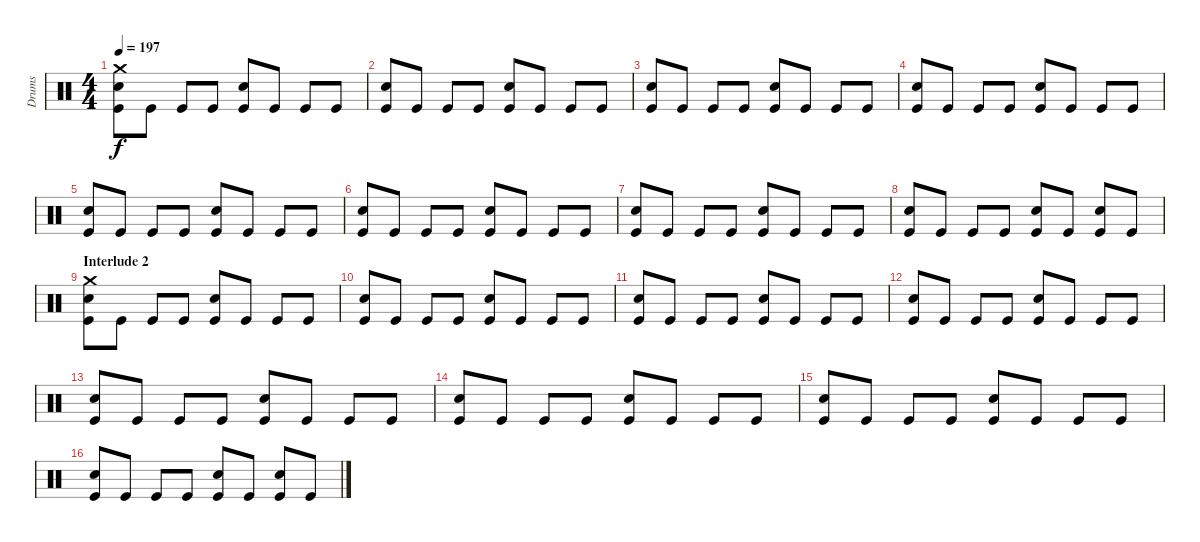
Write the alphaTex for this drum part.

\track ("Drums" "Drums") {instrument percussion}
\staff {score}
\articulation defaults
\ts (4 4)
\tempo 197
\clef neutral
\ks c
("Crash medium (hit)" "Snare (hit) 2" "Kick (hit)").8{dy f} "Kick (hit)".8 "Kick (hit)".8 "Kick (hit)".8 ("Snare (hit) 2" "Kick (hit)").8 "Kick (hit)".8 "Kick (hit)".8 "Kick (hit)".8 |
("Snare (hit) 2" "Kick (hit)").8 "Kick (hit)".8 "Kick (hit)".8 "Kick (hit)".8 ("Snare (hit) 2" "Kick (hit)").8 "Kick (hit)".8 "Kick (hit)".8 "Kick (hit)".8 |
("Snare (hit) 2" "Kick (hit)").8 "Kick (hit)".8 "Kick (hit)".8 "Kick (hit)".8 ("Snare (hit) 2" "Kick (hit)").8 "Kick (hit)".8 "Kick (hit)".8 "Kick (hit)".8 |
("Snare (hit) 2" "Kick (hit)").8 "Kick (hit)".8 "Kick (hit)".8 "Kick (hit)".8 ("Snare (hit) 2" "Kick (hit)").8 "Kick (hit)".8 "Kick (hit)".8 "Kick (hit)".8 |
("Snare (hit) 2" "Kick (hit)").8 "Kick (hit)".8 "Kick (hit)".8 "Kick (hit)".8 ("Snare (hit) 2" "Kick (hit)").8 "Kick (hit)".8 "Kick (hit)".8 "Kick (hit)".8 |
("Snare (hit) 2" "Kick (hit)").8 "Kick (hit)".8 "Kick (hit)".8 "Kick (hit)".8 ("Snare (hit) 2" "Kick (hit)").8 "Kick (hit)".8 "Kick (hit)".8 "Kick (hit)".8 |
("Snare (hit) 2" "Kick (hit)").8 "Kick (hit)".8 "Kick (hit)".8 "Kick (hit)".8 ("Snare (hit) 2" "Kick (hit)").8 "Kick (hit)".8 "Kick (hit)".8 "Kick (hit)".8 |
("Snare (hit) 2" "Kick (hit)").8 "Kick (hit)".8 "Kick (hit)".8 "Kick (hit)".8 ("Snare (hit) 2" "Kick (hit)").8 "Kick (hit)".8 ("Snare (hit) 2" "Kick (hit)").8 "Kick (hit)".8 |
\section ("" "Interlude 2")
("Crash medium (hit)" "Snare (hit) 2" "Kick (hit)").8 "Kick (hit)".8 "Kick (hit)".8 "Kick (hit)".8 ("Snare (hit) 2" "Kick (hit)").8 "Kick (hit)".8 "Kick (hit)".8 "Kick (hit)".8 |
("Snare (hit) 2" "Kick (hit)").8 "Kick (hit)".8 "Kick (hit)".8 "Kick (hit)".8 ("Snare (hit) 2" "Kick (hit)").8 "Kick (hit)".8 "Kick (hit)".8 "Kick (hit)".8 |
("Snare (hit) 2" "Kick (hit)").8 "Kick (hit)".8 "Kick (hit)".8 "Kick (hit)".8 ("Snare (hit) 2" "Kick (hit)").8 "Kick (hit)".8 "Kick (hit)".8 "Kick (hit)".8 |
("Snare (hit) 2" "Kick (hit)").8 "Kick (hit)".8 "Kick (hit)".8 "Kick (hit)".8 ("Snare (hit) 2" "Kick (hit)").8 "Kick (hit)".8 "Kick (hit)".8 "Kick (hit)".8 |
("Snare (hit) 2" "Kick (hit)").8 "Kick (hit)".8 "Kick (hit)".8 "Kick (hit)".8 ("Snare (hit) 2" "Kick (hit)").8 "Kick (hit)".8 "Kick (hit)".8 "Kick (hit)".8 |
("Snare (hit) 2" "Kick (hit)").8 "Kick (hit)".8 "Kick (hit)".8 "Kick (hit)".8 ("Snare (hit) 2" "Kick (hit)").8 "Kick (hit)".8 "Kick (hit)".8 "Kick (hit)".8 |
("Snare (hit) 2" "Kick (hit)").8 "Kick (hit)".8 "Kick (hit)".8 "Kick (hit)".8 ("Snare (hit) 2" "Kick (hit)").8 "Kick (hit)".8 "Kick (hit)".8 "Kick (hit)".8 |
("Snare (hit) 2" "Kick (hit)").8 "Kick (hit)".8 "Kick (hit)".8 "Kick (hit)".8 ("Snare (hit) 2" "Kick (hit)").8 "Kick (hit)".8 ("Snare (hit) 2" "Kick (hit)").8 "Kick (hit)".8
